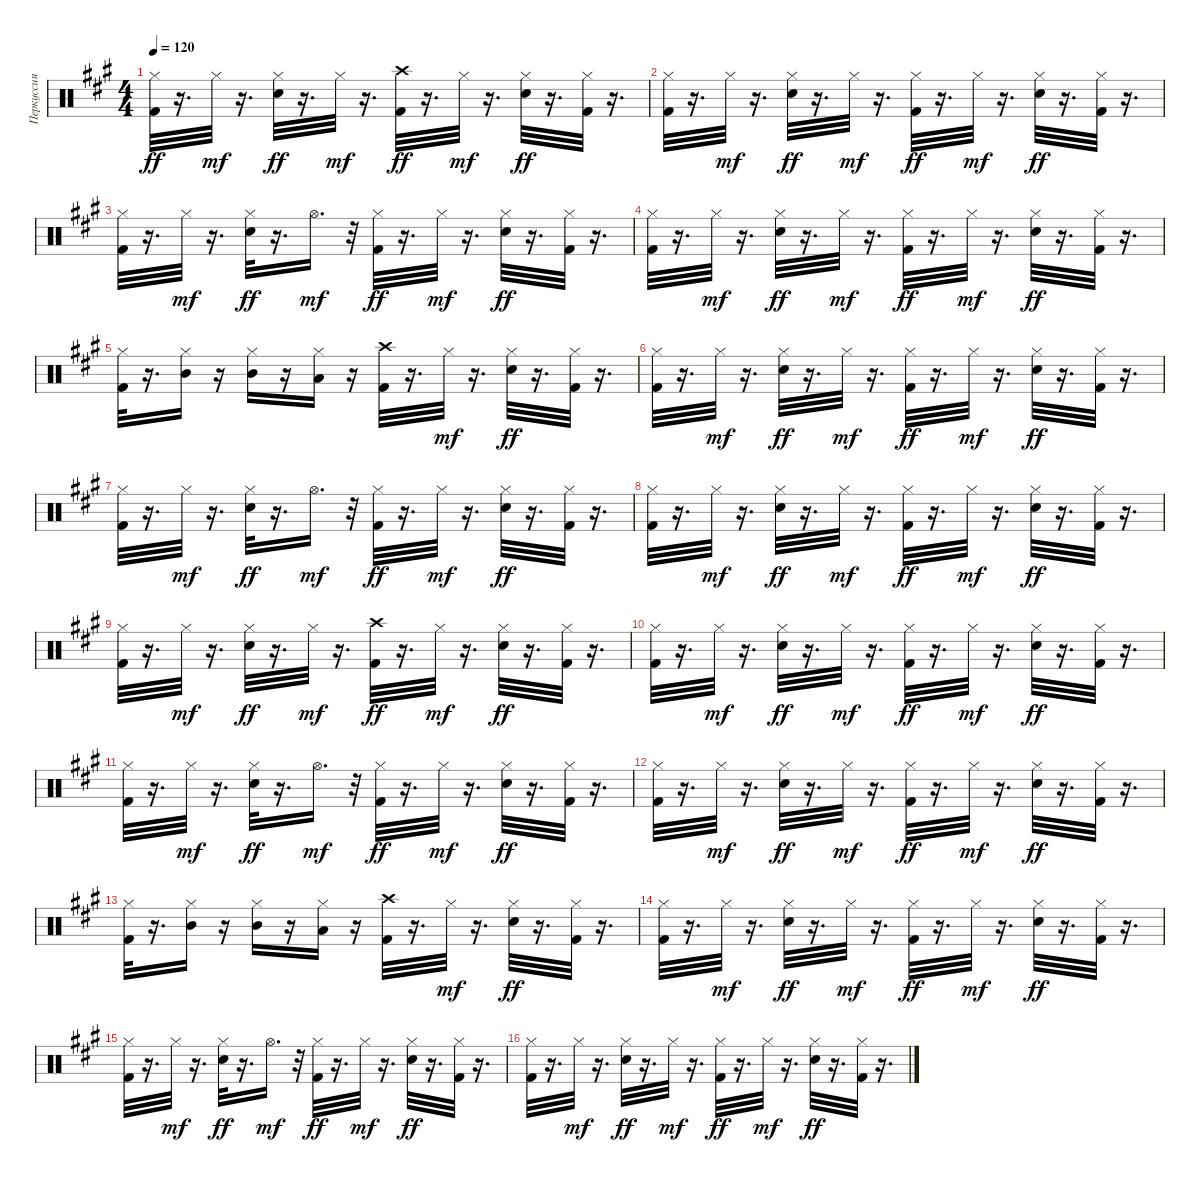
\track ("Перкуссия" "Перкуссия") {instrument percussion}
\staff {score}
\articulation defaults
\ts (4 4)
\tempo 120
\clef neutral
\ks f#minor
("Hi-Hat (closed)" "Kick (hit) 2").32{dy ff} r.16{d} "Hi-Hat (closed)".32{dy mf} r.16{d} ("Hi-Hat (closed)" "Snare (hit) 2").32{dy ff} r.16{d} "Hi-Hat (closed)".32{dy mf} r.16{d} ("Crash high (hit)" "Kick (hit) 2").32{dy ff} r.16{d} "Hi-Hat (closed)".32{dy mf} r.16{d} ("Hi-Hat (closed)" "Snare (hit) 2").32{dy ff} r.16{d} ("Hi-Hat (closed)" "Kick (hit) 2").32 r.16{d} |
("Hi-Hat (closed)" "Kick (hit) 2").32 r.16{d} "Hi-Hat (closed)".32{dy mf} r.16{d} ("Hi-Hat (closed)" "Snare (hit) 2").32{dy ff} r.16{d} "Hi-Hat (closed)".32{dy mf} r.16{d} ("Hi-Hat (closed)" "Kick (hit) 2").32{dy ff} r.16{d} "Hi-Hat (closed)".32{dy mf} r.16{d} ("Hi-Hat (closed)" "Snare (hit) 2").32{dy ff} r.16{d} ("Hi-Hat (closed)" "Kick (hit) 2").32 r.16{d} |
("Hi-Hat (closed)" "Kick (hit) 2").32 r.16{d} "Hi-Hat (closed)".32{dy mf} r.16{d} ("Hi-Hat (closed)" "Snare (hit) 2").32{dy ff} r.16{d} "Hi-Hat (open)".16{d dy mf} r.32 ("Hi-Hat (closed)" "Kick (hit) 2").32{dy ff} r.16{d} "Hi-Hat (closed)".32{dy mf} r.16{d} ("Hi-Hat (closed)" "Snare (hit) 2").32{dy ff} r.16{d} ("Hi-Hat (closed)" "Kick (hit) 2").32 r.16{d} |
("Hi-Hat (closed)" "Kick (hit) 2").32 r.16{d} "Hi-Hat (closed)".32{dy mf} r.16{d} ("Hi-Hat (closed)" "Snare (hit) 2").32{dy ff} r.16{d} "Hi-Hat (closed)".32{dy mf} r.16{d} ("Hi-Hat (closed)" "Kick (hit) 2").32{dy ff} r.16{d} "Hi-Hat (closed)".32{dy mf} r.16{d} ("Hi-Hat (closed)" "Snare (hit) 2").32{dy ff} r.16{d} ("Hi-Hat (closed)" "Kick (hit) 2").32 r.16{d} |
("Hi-Hat (closed)" "Kick (hit) 2").32 r.16{d} ("Hi-Hat (closed)" "Mid Tom (hit)").16 r.16 ("Hi-Hat (closed)" "Mid Tom (hit)").16 r.16 ("Hi-Hat (closed)" "Low Tom (hit)").16 r.16 ("Crash high (hit)" "Kick (hit) 2").32 r.16{d} "Hi-Hat (closed)".32{dy mf} r.16{d} ("Hi-Hat (closed)" "Snare (hit) 2").32{dy ff} r.16{d} ("Hi-Hat (closed)" "Kick (hit) 2").32 r.16{d} |
("Hi-Hat (closed)" "Kick (hit) 2").32 r.16{d} "Hi-Hat (closed)".32{dy mf} r.16{d} ("Hi-Hat (closed)" "Snare (hit) 2").32{dy ff} r.16{d} "Hi-Hat (closed)".32{dy mf} r.16{d} ("Hi-Hat (closed)" "Kick (hit) 2").32{dy ff} r.16{d} "Hi-Hat (closed)".32{dy mf} r.16{d} ("Hi-Hat (closed)" "Snare (hit) 2").32{dy ff} r.16{d} ("Hi-Hat (closed)" "Kick (hit) 2").32 r.16{d} |
("Hi-Hat (closed)" "Kick (hit) 2").32 r.16{d} "Hi-Hat (closed)".32{dy mf} r.16{d} ("Hi-Hat (closed)" "Snare (hit) 2").32{dy ff} r.16{d} "Hi-Hat (open)".16{d dy mf} r.32 ("Hi-Hat (closed)" "Kick (hit) 2").32{dy ff} r.16{d} "Hi-Hat (closed)".32{dy mf} r.16{d} ("Hi-Hat (closed)" "Snare (hit) 2").32{dy ff} r.16{d} ("Hi-Hat (closed)" "Kick (hit) 2").32 r.16{d} |
("Hi-Hat (closed)" "Kick (hit) 2").32 r.16{d} "Hi-Hat (closed)".32{dy mf} r.16{d} ("Hi-Hat (closed)" "Snare (hit) 2").32{dy ff} r.16{d} "Hi-Hat (closed)".32{dy mf} r.16{d} ("Hi-Hat (closed)" "Kick (hit) 2").32{dy ff} r.16{d} "Hi-Hat (closed)".32{dy mf} r.16{d} ("Hi-Hat (closed)" "Snare (hit) 2").32{dy ff} r.16{d} ("Hi-Hat (closed)" "Kick (hit) 2").32 r.16{d} |
("Hi-Hat (closed)" "Kick (hit) 2").32 r.16{d} "Hi-Hat (closed)".32{dy mf} r.16{d} ("Hi-Hat (closed)" "Snare (hit) 2").32{dy ff} r.16{d} "Hi-Hat (closed)".32{dy mf} r.16{d} ("Crash high (hit)" "Kick (hit) 2").32{dy ff} r.16{d} "Hi-Hat (closed)".32{dy mf} r.16{d} ("Hi-Hat (closed)" "Snare (hit) 2").32{dy ff} r.16{d} ("Hi-Hat (closed)" "Kick (hit) 2").32 r.16{d} |
("Hi-Hat (closed)" "Kick (hit) 2").32 r.16{d} "Hi-Hat (closed)".32{dy mf} r.16{d} ("Hi-Hat (closed)" "Snare (hit) 2").32{dy ff} r.16{d} "Hi-Hat (closed)".32{dy mf} r.16{d} ("Hi-Hat (closed)" "Kick (hit) 2").32{dy ff} r.16{d} "Hi-Hat (closed)".32{dy mf} r.16{d} ("Hi-Hat (closed)" "Snare (hit) 2").32{dy ff} r.16{d} ("Hi-Hat (closed)" "Kick (hit) 2").32 r.16{d} |
("Hi-Hat (closed)" "Kick (hit) 2").32 r.16{d} "Hi-Hat (closed)".32{dy mf} r.16{d} ("Hi-Hat (closed)" "Snare (hit) 2").32{dy ff} r.16{d} "Hi-Hat (open)".16{d dy mf} r.32 ("Hi-Hat (closed)" "Kick (hit) 2").32{dy ff} r.16{d} "Hi-Hat (closed)".32{dy mf} r.16{d} ("Hi-Hat (closed)" "Snare (hit) 2").32{dy ff} r.16{d} ("Hi-Hat (closed)" "Kick (hit) 2").32 r.16{d} |
("Hi-Hat (closed)" "Kick (hit) 2").32 r.16{d} "Hi-Hat (closed)".32{dy mf} r.16{d} ("Hi-Hat (closed)" "Snare (hit) 2").32{dy ff} r.16{d} "Hi-Hat (closed)".32{dy mf} r.16{d} ("Hi-Hat (closed)" "Kick (hit) 2").32{dy ff} r.16{d} "Hi-Hat (closed)".32{dy mf} r.16{d} ("Hi-Hat (closed)" "Snare (hit) 2").32{dy ff} r.16{d} ("Hi-Hat (closed)" "Kick (hit) 2").32 r.16{d} |
("Hi-Hat (closed)" "Kick (hit) 2").32 r.16{d} ("Hi-Hat (closed)" "Mid Tom (hit)").16 r.16 ("Hi-Hat (closed)" "Mid Tom (hit)").16 r.16 ("Hi-Hat (closed)" "Low Tom (hit)").16 r.16 ("Crash high (hit)" "Kick (hit) 2").32 r.16{d} "Hi-Hat (closed)".32{dy mf} r.16{d} ("Hi-Hat (closed)" "Snare (hit) 2").32{dy ff} r.16{d} ("Hi-Hat (closed)" "Kick (hit) 2").32 r.16{d} |
("Hi-Hat (closed)" "Kick (hit) 2").32 r.16{d} "Hi-Hat (closed)".32{dy mf} r.16{d} ("Hi-Hat (closed)" "Snare (hit) 2").32{dy ff} r.16{d} "Hi-Hat (closed)".32{dy mf} r.16{d} ("Hi-Hat (closed)" "Kick (hit) 2").32{dy ff} r.16{d} "Hi-Hat (closed)".32{dy mf} r.16{d} ("Hi-Hat (closed)" "Snare (hit) 2").32{dy ff} r.16{d} ("Hi-Hat (closed)" "Kick (hit) 2").32 r.16{d} |
("Hi-Hat (closed)" "Kick (hit) 2").32 r.16{d} "Hi-Hat (closed)".32{dy mf} r.16{d} ("Hi-Hat (closed)" "Snare (hit) 2").32{dy ff} r.16{d} "Hi-Hat (open)".16{d dy mf} r.32 ("Hi-Hat (closed)" "Kick (hit) 2").32{dy ff} r.16{d} "Hi-Hat (closed)".32{dy mf} r.16{d} ("Hi-Hat (closed)" "Snare (hit) 2").32{dy ff} r.16{d} ("Hi-Hat (closed)" "Kick (hit) 2").32 r.16{d} |
("Hi-Hat (closed)" "Kick (hit) 2").32 r.16{d} "Hi-Hat (closed)".32{dy mf} r.16{d} ("Hi-Hat (closed)" "Snare (hit) 2").32{dy ff} r.16{d} "Hi-Hat (closed)".32{dy mf} r.16{d} ("Hi-Hat (closed)" "Kick (hit) 2").32{dy ff} r.16{d} "Hi-Hat (closed)".32{dy mf} r.16{d} ("Hi-Hat (closed)" "Snare (hit) 2").32{dy ff} r.16{d} ("Hi-Hat (closed)" "Kick (hit) 2").32 r.16{d}
